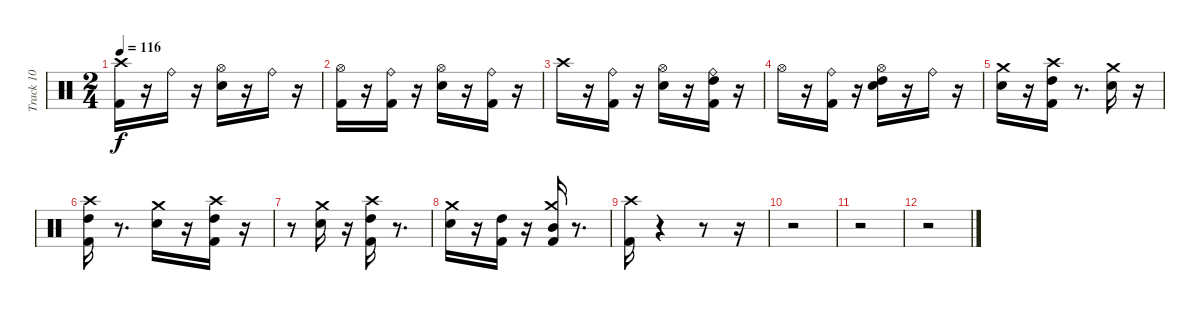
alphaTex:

\track ("Track 10" "Track 10") {instrument percussion}
\staff {score}
\articulation defaults
\ts (2 4)
\tempo 116
\clef neutral
\ks c
("Crash high (hit)" "Kick (hit) 2").16{dy f} r.16 "Ride (bell)".16 r.16 ("Electric Snare (hit)" "Hi-Hat (open)").16 r.16 "Ride (bell)".16 r.16 |
("Kick (hit) 2" "Hi-Hat (open)").16 r.16 ("Ride (bell)" "Kick (hit) 2").16 r.16 ("Electric Snare (hit)" "Hi-Hat (open)").16 r.16 ("Kick (hit) 2" "Ride (bell)").16 r.16 |
"Crash high (hit)".16 r.16 ("Kick (hit) 2" "Ride (bell)").16 r.16 ("Hi-Hat (open)" "Electric Snare (hit)").16 r.16 ("High Tom (hit)" "Kick (hit) 2" "Ride (bell)").16 r.16 |
"Hi-Hat (open)".16 r.16 ("Kick (hit) 2" "Ride (bell)").16 r.16 ("High Tom (hit)" "Hi-Hat (open)" "Electric Snare (hit)").16 r.16 "Ride (bell)".16 r.16 |
("Electric Snare (hit)" "Crash medium (hit)").16 r.16 ("High Tom (hit)" "Kick (hit) 2" "Crash high (hit)").16 r.8{d} ("Electric Snare (hit)" "Crash medium (hit)").16 r.16 |
("High Tom (hit)" "Crash high (hit)" "Kick (hit) 2").16 r.8{d} ("Crash medium (hit)" "Electric Snare (hit)").16 r.16 ("Crash high (hit)" "High Tom (hit)" "Kick (hit) 2").16 r.16 |
r.8 ("Crash medium (hit)" "Electric Snare (hit)").16 r.16 ("High Tom (hit)" "Kick (hit) 2" "Crash high (hit)").16 r.8{d} |
("Electric Snare (hit)" "Crash medium (hit)").16 r.16 ("High Tom (hit)" "Kick (hit) 2").16 r.16 ("Crash medium (hit)" "Mid Tom (hit)" "Kick (hit) 2").16 r.8{d} |
("Crash high (hit)" "Kick (hit) 2").16 r.4 r.8 r.16 |
r.2 |
r.2 |
r.2
